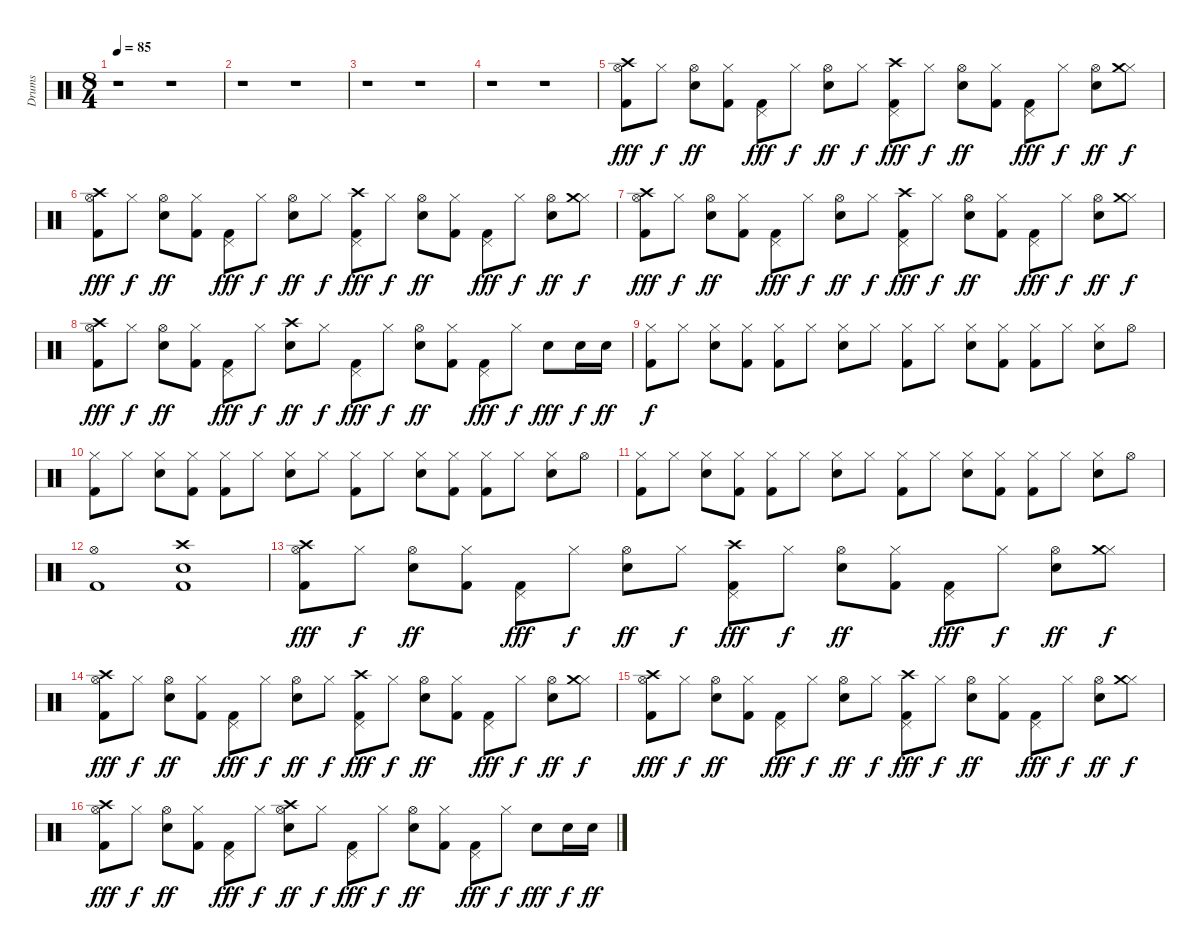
\track ("Drums" "Drums") {instrument percussion}
\staff {score}
\articulation defaults
\ts (8 4)
\tempo 85
\clef neutral
\ks c
r.1{dy fff} r.1 |
r.1 r.1 |
r.1 r.1 |
r.1 r.1 |
("Hi-Hat (open)" "Crash high (hit)" "Kick (hit) 2").8 "Hi-Hat (closed)".8{dy f} ("Hi-Hat (open)" "Electric Snare (hit)").8{dy ff} ("Hi-Hat (closed)" "Kick (hit) 2").8 ("Pedal Hi-Hat (hit)" "Kick (hit) 2").8{dy fff} "Hi-Hat (closed)".8{dy f} ("Hi-Hat (open)" "Electric Snare (hit)").8{dy ff} "Hi-Hat (closed)".8{dy f} ("Pedal Hi-Hat (hit)" "Crash high (hit)" "Kick (hit) 2").8{dy fff} "Hi-Hat (closed)".8{dy f} ("Hi-Hat (open)" "Electric Snare (hit)").8{dy ff} ("Hi-Hat (closed)" "Kick (hit) 2").8 ("Pedal Hi-Hat (hit)" "Kick (hit) 2").8{dy fff} "Hi-Hat (closed)".8{dy f} ("Hi-Hat (open)" "Electric Snare (hit)").8{dy ff} ("Hi-Hat (closed)" "Crash medium (hit)").8{dy f} |
("Hi-Hat (open)" "Crash high (hit)" "Kick (hit) 2").8{dy fff} "Hi-Hat (closed)".8{dy f} ("Hi-Hat (open)" "Electric Snare (hit)").8{dy ff} ("Hi-Hat (closed)" "Kick (hit) 2").8 ("Pedal Hi-Hat (hit)" "Kick (hit) 2").8{dy fff} "Hi-Hat (closed)".8{dy f} ("Hi-Hat (open)" "Electric Snare (hit)").8{dy ff} "Hi-Hat (closed)".8{dy f} ("Pedal Hi-Hat (hit)" "Crash high (hit)" "Kick (hit) 2").8{dy fff} "Hi-Hat (closed)".8{dy f} ("Hi-Hat (open)" "Electric Snare (hit)").8{dy ff} ("Hi-Hat (closed)" "Kick (hit) 2").8 ("Pedal Hi-Hat (hit)" "Kick (hit) 2").8{dy fff} "Hi-Hat (closed)".8{dy f} ("Hi-Hat (open)" "Electric Snare (hit)").8{dy ff} ("Hi-Hat (closed)" "Crash medium (hit)").8{dy f} |
("Hi-Hat (open)" "Crash high (hit)" "Kick (hit) 2").8{dy fff} "Hi-Hat (closed)".8{dy f} ("Hi-Hat (open)" "Electric Snare (hit)").8{dy ff} ("Hi-Hat (closed)" "Kick (hit) 2").8 ("Pedal Hi-Hat (hit)" "Kick (hit) 2").8{dy fff} "Hi-Hat (closed)".8{dy f} ("Hi-Hat (open)" "Electric Snare (hit)").8{dy ff} "Hi-Hat (closed)".8{dy f} ("Pedal Hi-Hat (hit)" "Crash high (hit)" "Kick (hit) 2").8{dy fff} "Hi-Hat (closed)".8{dy f} ("Hi-Hat (open)" "Electric Snare (hit)").8{dy ff} ("Hi-Hat (closed)" "Kick (hit) 2").8 ("Pedal Hi-Hat (hit)" "Kick (hit) 2").8{dy fff} "Hi-Hat (closed)".8{dy f} ("Hi-Hat (open)" "Electric Snare (hit)").8{dy ff} ("Hi-Hat (closed)" "Crash medium (hit)").8{dy f} |
("Hi-Hat (open)" "Crash high (hit)" "Kick (hit) 2").8{dy fff} "Hi-Hat (closed)".8{dy f} ("Hi-Hat (open)" "Electric Snare (hit)").8{dy ff} ("Hi-Hat (closed)" "Kick (hit) 2").8 ("Pedal Hi-Hat (hit)" "Kick (hit) 2").8{dy fff} "Hi-Hat (closed)".8{dy f} ("Crash high (hit)" "Electric Snare (hit)").8{dy ff} "Hi-Hat (closed)".8{dy f} ("Pedal Hi-Hat (hit)" "Kick (hit) 2").8{dy fff} "Hi-Hat (closed)".8{dy f} ("Hi-Hat (open)" "Electric Snare (hit)").8{dy ff} ("Hi-Hat (closed)" "Kick (hit) 2").8 ("Pedal Hi-Hat (hit)" "Kick (hit) 2").8{dy fff} "Hi-Hat (closed)".8{dy f} "Electric Snare (hit)".8{dy fff} "Electric Snare (hit)".16{dy f} "Electric Snare (hit)".16{dy ff} |
("Hi-Hat (closed)" "Kick (hit) 2").8{dy f} "Hi-Hat (closed)".8 ("Hi-Hat (closed)" "Electric Snare (hit)").8 ("Hi-Hat (closed)" "Kick (hit) 2").8 ("Hi-Hat (closed)" "Kick (hit) 2").8 "Hi-Hat (closed)".8 ("Hi-Hat (closed)" "Electric Snare (hit)").8 "Hi-Hat (closed)".8 ("Hi-Hat (closed)" "Kick (hit) 2").8 "Hi-Hat (closed)".8 ("Hi-Hat (closed)" "Electric Snare (hit)").8 ("Hi-Hat (closed)" "Kick (hit) 2").8 ("Hi-Hat (closed)" "Kick (hit) 2").8 "Hi-Hat (closed)".8 ("Hi-Hat (closed)" "Electric Snare (hit)").8 "Hi-Hat (open)".8 |
("Hi-Hat (closed)" "Kick (hit) 2").8 "Hi-Hat (closed)".8 ("Hi-Hat (closed)" "Electric Snare (hit)").8 ("Hi-Hat (closed)" "Kick (hit) 2").8 ("Hi-Hat (closed)" "Kick (hit) 2").8 "Hi-Hat (closed)".8 ("Hi-Hat (closed)" "Electric Snare (hit)").8 "Hi-Hat (closed)".8 ("Hi-Hat (closed)" "Kick (hit) 2").8 "Hi-Hat (closed)".8 ("Hi-Hat (closed)" "Electric Snare (hit)").8 ("Hi-Hat (closed)" "Kick (hit) 2").8 ("Hi-Hat (closed)" "Kick (hit) 2").8 "Hi-Hat (closed)".8 ("Hi-Hat (closed)" "Electric Snare (hit)").8 "Hi-Hat (open)".8 |
("Hi-Hat (closed)" "Kick (hit) 2").8 "Hi-Hat (closed)".8 ("Hi-Hat (closed)" "Electric Snare (hit)").8 ("Hi-Hat (closed)" "Kick (hit) 2").8 ("Hi-Hat (closed)" "Kick (hit) 2").8 "Hi-Hat (closed)".8 ("Hi-Hat (closed)" "Electric Snare (hit)").8 "Hi-Hat (closed)".8 ("Hi-Hat (closed)" "Kick (hit) 2").8 "Hi-Hat (closed)".8 ("Hi-Hat (closed)" "Electric Snare (hit)").8 ("Hi-Hat (closed)" "Kick (hit) 2").8 ("Hi-Hat (closed)" "Kick (hit) 2").8 "Hi-Hat (closed)".8 ("Hi-Hat (closed)" "Electric Snare (hit)").8 "Hi-Hat (open)".8 |
("Hi-Hat (open)" "Kick (hit) 2").1 ("Crash high (hit)" "Electric Snare (hit)" "Kick (hit) 2").1 |
("Hi-Hat (open)" "Crash high (hit)" "Kick (hit) 2").8{dy fff} "Hi-Hat (closed)".8{dy f} ("Hi-Hat (open)" "Electric Snare (hit)").8{dy ff} ("Hi-Hat (closed)" "Kick (hit) 2").8 ("Pedal Hi-Hat (hit)" "Kick (hit) 2").8{dy fff} "Hi-Hat (closed)".8{dy f} ("Hi-Hat (open)" "Electric Snare (hit)").8{dy ff} "Hi-Hat (closed)".8{dy f} ("Pedal Hi-Hat (hit)" "Crash high (hit)" "Kick (hit) 2").8{dy fff} "Hi-Hat (closed)".8{dy f} ("Hi-Hat (open)" "Electric Snare (hit)").8{dy ff} ("Hi-Hat (closed)" "Kick (hit) 2").8 ("Pedal Hi-Hat (hit)" "Kick (hit) 2").8{dy fff} "Hi-Hat (closed)".8{dy f} ("Hi-Hat (open)" "Electric Snare (hit)").8{dy ff} ("Hi-Hat (closed)" "Crash medium (hit)").8{dy f} |
("Hi-Hat (open)" "Crash high (hit)" "Kick (hit) 2").8{dy fff} "Hi-Hat (closed)".8{dy f} ("Hi-Hat (open)" "Electric Snare (hit)").8{dy ff} ("Hi-Hat (closed)" "Kick (hit) 2").8 ("Pedal Hi-Hat (hit)" "Kick (hit) 2").8{dy fff} "Hi-Hat (closed)".8{dy f} ("Hi-Hat (open)" "Electric Snare (hit)").8{dy ff} "Hi-Hat (closed)".8{dy f} ("Pedal Hi-Hat (hit)" "Crash high (hit)" "Kick (hit) 2").8{dy fff} "Hi-Hat (closed)".8{dy f} ("Hi-Hat (open)" "Electric Snare (hit)").8{dy ff} ("Hi-Hat (closed)" "Kick (hit) 2").8 ("Pedal Hi-Hat (hit)" "Kick (hit) 2").8{dy fff} "Hi-Hat (closed)".8{dy f} ("Hi-Hat (open)" "Electric Snare (hit)").8{dy ff} ("Hi-Hat (closed)" "Crash medium (hit)").8{dy f} |
("Hi-Hat (open)" "Crash high (hit)" "Kick (hit) 2").8{dy fff} "Hi-Hat (closed)".8{dy f} ("Hi-Hat (open)" "Electric Snare (hit)").8{dy ff} ("Hi-Hat (closed)" "Kick (hit) 2").8 ("Pedal Hi-Hat (hit)" "Kick (hit) 2").8{dy fff} "Hi-Hat (closed)".8{dy f} ("Hi-Hat (open)" "Electric Snare (hit)").8{dy ff} "Hi-Hat (closed)".8{dy f} ("Pedal Hi-Hat (hit)" "Crash high (hit)" "Kick (hit) 2").8{dy fff} "Hi-Hat (closed)".8{dy f} ("Hi-Hat (open)" "Electric Snare (hit)").8{dy ff} ("Hi-Hat (closed)" "Kick (hit) 2").8 ("Pedal Hi-Hat (hit)" "Kick (hit) 2").8{dy fff} "Hi-Hat (closed)".8{dy f} ("Hi-Hat (open)" "Electric Snare (hit)").8{dy ff} ("Hi-Hat (closed)" "Crash medium (hit)").8{dy f} |
("Hi-Hat (open)" "Crash high (hit)" "Kick (hit) 2").8{dy fff} "Hi-Hat (closed)".8{dy f} ("Hi-Hat (open)" "Electric Snare (hit)").8{dy ff} ("Hi-Hat (closed)" "Kick (hit) 2").8 ("Pedal Hi-Hat (hit)" "Kick (hit) 2").8{dy fff} "Hi-Hat (closed)".8{dy f} ("Hi-Hat (open)" "Crash high (hit)" "Electric Snare (hit)").8{dy ff} "Hi-Hat (closed)".8{dy f} ("Pedal Hi-Hat (hit)" "Kick (hit) 2").8{dy fff} "Hi-Hat (closed)".8{dy f} ("Hi-Hat (open)" "Electric Snare (hit)").8{dy ff} ("Hi-Hat (closed)" "Kick (hit) 2").8 ("Pedal Hi-Hat (hit)" "Kick (hit) 2").8{dy fff} "Hi-Hat (closed)".8{dy f} "Electric Snare (hit)".8{dy fff} "Electric Snare (hit)".16{dy f} "Electric Snare (hit)".16{dy ff}
